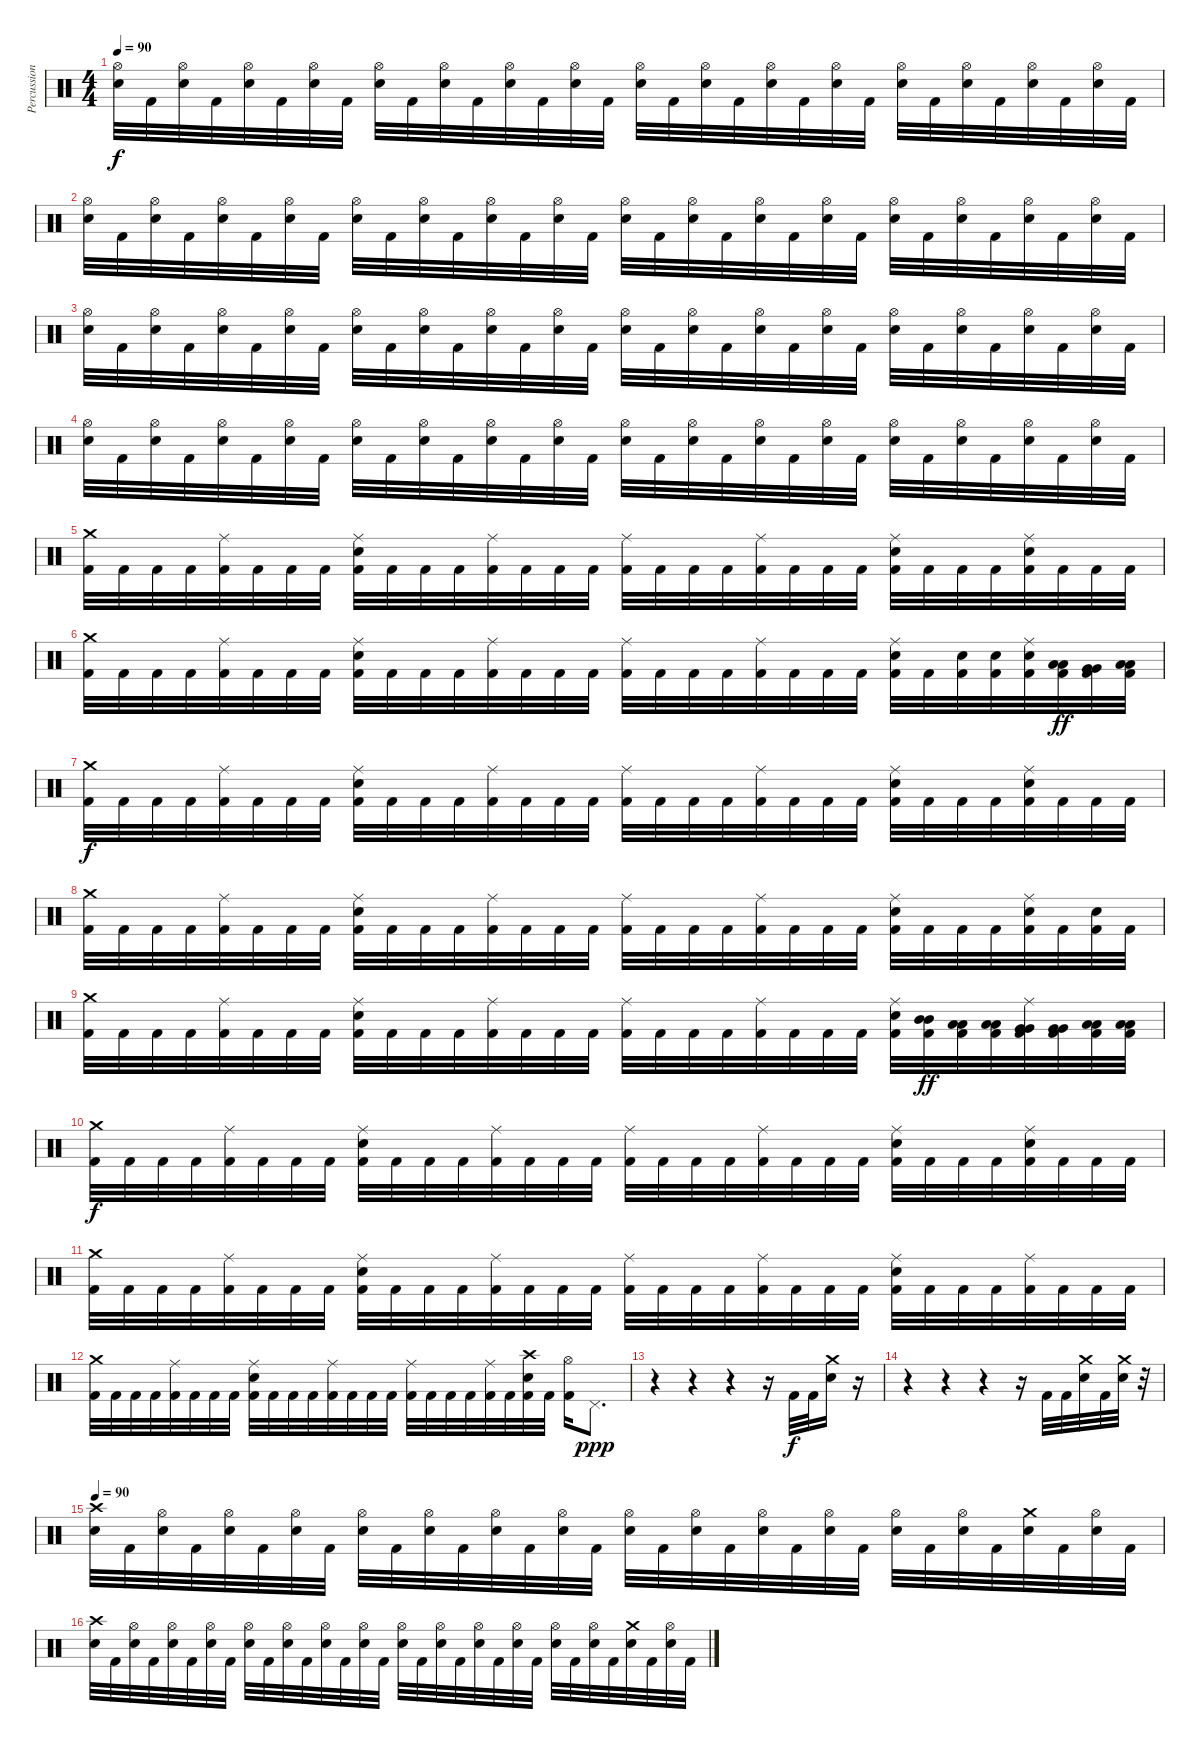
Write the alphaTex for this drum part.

\track ("Percussion" "Percussion") {instrument percussion}
\staff {score}
\articulation defaults
\ts (4 4)
\tempo 90
\clef neutral
\ks c
("Hi-Hat (open)" "Electric Snare (hit)").32{dy f} "Kick (hit) 2".32 ("Hi-Hat (open)" "Electric Snare (hit)").32 "Kick (hit) 2".32 ("Hi-Hat (open)" "Electric Snare (hit)").32 "Kick (hit) 2".32 ("Hi-Hat (open)" "Electric Snare (hit)").32 "Kick (hit) 2".32 ("Hi-Hat (open)" "Electric Snare (hit)").32 "Kick (hit) 2".32 ("Hi-Hat (open)" "Electric Snare (hit)").32 "Kick (hit) 2".32 ("Hi-Hat (open)" "Electric Snare (hit)").32 "Kick (hit) 2".32 ("Hi-Hat (open)" "Electric Snare (hit)").32 "Kick (hit) 2".32 ("Hi-Hat (open)" "Electric Snare (hit)").32 "Kick (hit) 2".32 ("Hi-Hat (open)" "Electric Snare (hit)").32 "Kick (hit) 2".32 ("Hi-Hat (open)" "Electric Snare (hit)").32 "Kick (hit) 2".32 ("Hi-Hat (open)" "Electric Snare (hit)").32 "Kick (hit) 2".32 ("Hi-Hat (open)" "Electric Snare (hit)").32 "Kick (hit) 2".32 ("Hi-Hat (open)" "Electric Snare (hit)").32 "Kick (hit) 2".32 ("Hi-Hat (open)" "Electric Snare (hit)").32 "Kick (hit) 2".32 ("Hi-Hat (open)" "Electric Snare (hit)").32 "Kick (hit) 2".32 |
("Hi-Hat (open)" "Electric Snare (hit)").32 "Kick (hit) 2".32 ("Hi-Hat (open)" "Electric Snare (hit)").32 "Kick (hit) 2".32 ("Hi-Hat (open)" "Electric Snare (hit)").32 "Kick (hit) 2".32 ("Hi-Hat (open)" "Electric Snare (hit)").32 "Kick (hit) 2".32 ("Hi-Hat (open)" "Electric Snare (hit)").32 "Kick (hit) 2".32 ("Hi-Hat (open)" "Electric Snare (hit)").32 "Kick (hit) 2".32 ("Hi-Hat (open)" "Electric Snare (hit)").32 "Kick (hit) 2".32 ("Hi-Hat (open)" "Electric Snare (hit)").32 "Kick (hit) 2".32 ("Hi-Hat (open)" "Electric Snare (hit)").32 "Kick (hit) 2".32 ("Hi-Hat (open)" "Electric Snare (hit)").32 "Kick (hit) 2".32 ("Hi-Hat (open)" "Electric Snare (hit)").32 "Kick (hit) 2".32 ("Hi-Hat (open)" "Electric Snare (hit)").32 "Kick (hit) 2".32 ("Hi-Hat (open)" "Electric Snare (hit)").32 "Kick (hit) 2".32 ("Hi-Hat (open)" "Electric Snare (hit)").32 "Kick (hit) 2".32 ("Hi-Hat (open)" "Electric Snare (hit)").32 "Kick (hit) 2".32 ("Hi-Hat (open)" "Electric Snare (hit)").32 "Kick (hit) 2".32 |
("Hi-Hat (open)" "Electric Snare (hit)").32 "Kick (hit) 2".32 ("Hi-Hat (open)" "Electric Snare (hit)").32 "Kick (hit) 2".32 ("Hi-Hat (open)" "Electric Snare (hit)").32 "Kick (hit) 2".32 ("Hi-Hat (open)" "Electric Snare (hit)").32 "Kick (hit) 2".32 ("Hi-Hat (open)" "Electric Snare (hit)").32 "Kick (hit) 2".32 ("Hi-Hat (open)" "Electric Snare (hit)").32 "Kick (hit) 2".32 ("Hi-Hat (open)" "Electric Snare (hit)").32 "Kick (hit) 2".32 ("Hi-Hat (open)" "Electric Snare (hit)").32 "Kick (hit) 2".32 ("Hi-Hat (open)" "Electric Snare (hit)").32 "Kick (hit) 2".32 ("Hi-Hat (open)" "Electric Snare (hit)").32 "Kick (hit) 2".32 ("Hi-Hat (open)" "Electric Snare (hit)").32 "Kick (hit) 2".32 ("Hi-Hat (open)" "Electric Snare (hit)").32 "Kick (hit) 2".32 ("Hi-Hat (open)" "Electric Snare (hit)").32 "Kick (hit) 2".32 ("Hi-Hat (open)" "Electric Snare (hit)").32 "Kick (hit) 2".32 ("Hi-Hat (open)" "Electric Snare (hit)").32 "Kick (hit) 2".32 ("Hi-Hat (open)" "Electric Snare (hit)").32 "Kick (hit) 2".32 |
("Hi-Hat (open)" "Electric Snare (hit)").32 "Kick (hit) 2".32 ("Hi-Hat (open)" "Electric Snare (hit)").32 "Kick (hit) 2".32 ("Hi-Hat (open)" "Electric Snare (hit)").32 "Kick (hit) 2".32 ("Hi-Hat (open)" "Electric Snare (hit)").32 "Kick (hit) 2".32 ("Hi-Hat (open)" "Electric Snare (hit)").32 "Kick (hit) 2".32 ("Hi-Hat (open)" "Electric Snare (hit)").32 "Kick (hit) 2".32 ("Hi-Hat (open)" "Electric Snare (hit)").32 "Kick (hit) 2".32 ("Hi-Hat (open)" "Electric Snare (hit)").32 "Kick (hit) 2".32 ("Hi-Hat (open)" "Electric Snare (hit)").32 "Kick (hit) 2".32 ("Hi-Hat (open)" "Electric Snare (hit)").32 "Kick (hit) 2".32 ("Hi-Hat (open)" "Electric Snare (hit)").32 "Kick (hit) 2".32 ("Hi-Hat (open)" "Electric Snare (hit)").32 "Kick (hit) 2".32 ("Hi-Hat (open)" "Electric Snare (hit)").32 "Kick (hit) 2".32 ("Hi-Hat (open)" "Electric Snare (hit)").32 "Kick (hit) 2".32 ("Hi-Hat (open)" "Electric Snare (hit)").32 "Kick (hit) 2".32 ("Hi-Hat (open)" "Electric Snare (hit)").32 "Kick (hit) 2".32 |
("Crash medium (hit)" "Kick (hit) 2").32 "Kick (hit) 2".32 "Kick (hit) 2".32 "Kick (hit) 2".32 ("Ride (middle)" "Kick (hit) 2").32 "Kick (hit) 2".32 "Kick (hit) 2".32 "Kick (hit) 2".32 ("Ride (middle)" "Electric Snare (hit)" "Kick (hit) 2").32 "Kick (hit) 2".32 "Kick (hit) 2".32 "Kick (hit) 2".32 ("Ride (middle)" "Kick (hit) 2").32 "Kick (hit) 2".32 "Kick (hit) 2".32 "Kick (hit) 2".32 ("Ride (middle)" "Kick (hit) 2").32 "Kick (hit) 2".32 "Kick (hit) 2".32 "Kick (hit) 2".32 ("Ride (middle)" "Kick (hit) 2").32 "Kick (hit) 2".32 "Kick (hit) 2".32 "Kick (hit) 2".32 ("Ride (middle)" "Electric Snare (hit)" "Kick (hit) 2").32 "Kick (hit) 2".32 "Kick (hit) 2".32 "Kick (hit) 2".32 ("Ride (middle)" "Electric Snare (hit)" "Kick (hit) 2").32 "Kick (hit) 2".32 "Kick (hit) 2".32 "Kick (hit) 2".32 |
("Crash medium (hit)" "Kick (hit) 2").32 "Kick (hit) 2".32 "Kick (hit) 2".32 "Kick (hit) 2".32 ("Ride (middle)" "Kick (hit) 2").32 "Kick (hit) 2".32 "Kick (hit) 2".32 "Kick (hit) 2".32 ("Ride (middle)" "Electric Snare (hit)" "Kick (hit) 2").32 "Kick (hit) 2".32 "Kick (hit) 2".32 "Kick (hit) 2".32 ("Ride (middle)" "Kick (hit) 2").32 "Kick (hit) 2".32 "Kick (hit) 2".32 "Kick (hit) 2".32 ("Ride (middle)" "Kick (hit) 2").32 "Kick (hit) 2".32 "Kick (hit) 2".32 "Kick (hit) 2".32 ("Ride (middle)" "Kick (hit) 2").32 "Kick (hit) 2".32 "Kick (hit) 2".32 "Kick (hit) 2".32 ("Ride (middle)" "Electric Snare (hit)" "Kick (hit) 2").32 "Kick (hit) 2".32 ("Electric Snare (hit)" "Kick (hit) 2").32 ("Electric Snare (hit)" "Kick (hit) 2").32 ("Ride (middle)" "Electric Snare (hit)" "Kick (hit) 2").32 ("Low Tom (hit)" "Low Tom (hit)" "Kick (hit) 2").32{dy ff} ("Very Low Tom (hit)" "Very Low Tom (hit)" "Kick (hit) 2").32 ("Low Floor Tom (hit)" "Low Floor Tom (hit)" "Kick (hit) 2").32 |
("Crash medium (hit)" "Kick (hit) 2").32{dy f} "Kick (hit) 2".32 "Kick (hit) 2".32 "Kick (hit) 2".32 ("Ride (middle)" "Kick (hit) 2").32 "Kick (hit) 2".32 "Kick (hit) 2".32 "Kick (hit) 2".32 ("Ride (middle)" "Electric Snare (hit)" "Kick (hit) 2").32 "Kick (hit) 2".32 "Kick (hit) 2".32 "Kick (hit) 2".32 ("Ride (middle)" "Kick (hit) 2").32 "Kick (hit) 2".32 "Kick (hit) 2".32 "Kick (hit) 2".32 ("Ride (middle)" "Kick (hit) 2").32 "Kick (hit) 2".32 "Kick (hit) 2".32 "Kick (hit) 2".32 ("Ride (middle)" "Kick (hit) 2").32 "Kick (hit) 2".32 "Kick (hit) 2".32 "Kick (hit) 2".32 ("Ride (middle)" "Electric Snare (hit)" "Kick (hit) 2").32 "Kick (hit) 2".32 "Kick (hit) 2".32 "Kick (hit) 2".32 ("Ride (middle)" "Electric Snare (hit)" "Kick (hit) 2").32 "Kick (hit) 2".32 "Kick (hit) 2".32 "Kick (hit) 2".32 |
("Crash medium (hit)" "Kick (hit) 2").32 "Kick (hit) 2".32 "Kick (hit) 2".32 "Kick (hit) 2".32 ("Ride (middle)" "Kick (hit) 2").32 "Kick (hit) 2".32 "Kick (hit) 2".32 "Kick (hit) 2".32 ("Ride (middle)" "Electric Snare (hit)" "Kick (hit) 2").32 "Kick (hit) 2".32 "Kick (hit) 2".32 "Kick (hit) 2".32 ("Ride (middle)" "Kick (hit) 2").32 "Kick (hit) 2".32 "Kick (hit) 2".32 "Kick (hit) 2".32 ("Ride (middle)" "Kick (hit) 2").32 "Kick (hit) 2".32 "Kick (hit) 2".32 "Kick (hit) 2".32 ("Ride (middle)" "Kick (hit) 2").32 "Kick (hit) 2".32 "Kick (hit) 2".32 "Kick (hit) 2".32 ("Ride (middle)" "Electric Snare (hit)" "Kick (hit) 2").32 "Kick (hit) 2".32 "Kick (hit) 2".32 "Kick (hit) 2".32 ("Ride (middle)" "Electric Snare (hit)" "Kick (hit) 2").32 "Kick (hit) 2".32 ("Electric Snare (hit)" "Kick (hit) 2").32 "Kick (hit) 2".32 |
("Crash medium (hit)" "Kick (hit) 2").32 "Kick (hit) 2".32 "Kick (hit) 2".32 "Kick (hit) 2".32 ("Ride (middle)" "Kick (hit) 2").32 "Kick (hit) 2".32 "Kick (hit) 2".32 "Kick (hit) 2".32 ("Ride (middle)" "Electric Snare (hit)" "Kick (hit) 2").32 "Kick (hit) 2".32 "Kick (hit) 2".32 "Kick (hit) 2".32 ("Ride (middle)" "Kick (hit) 2").32 "Kick (hit) 2".32 "Kick (hit) 2".32 "Kick (hit) 2".32 ("Ride (middle)" "Kick (hit) 2").32 "Kick (hit) 2".32 "Kick (hit) 2".32 "Kick (hit) 2".32 ("Ride (middle)" "Kick (hit) 2").32 "Kick (hit) 2".32 "Kick (hit) 2".32 "Kick (hit) 2".32 ("Ride (middle)" "Electric Snare (hit)" "Kick (hit) 2").32 ("Mid Tom (hit)" "Mid Tom (hit)" "Kick (hit) 2").32{dy ff} ("Low Tom (hit)" "Low Tom (hit)" "Kick (hit) 2").32 ("Low Tom (hit)" "Low Tom (hit)" "Kick (hit) 2").32 ("Ride (middle)" "Very Low Tom (hit)" "Very Low Tom (hit)" "Kick (hit) 2").32 ("Very Low Tom (hit)" "Very Low Tom (hit)" "Kick (hit) 2").32 ("Low Floor Tom (hit)" "Low Floor Tom (hit)" "Kick (hit) 2").32 ("Low Floor Tom (hit)" "Low Floor Tom (hit)" "Kick (hit) 2").32 |
("Crash medium (hit)" "Kick (hit) 2").32{dy f} "Kick (hit) 2".32 "Kick (hit) 2".32 "Kick (hit) 2".32 ("Ride (middle)" "Kick (hit) 2").32 "Kick (hit) 2".32 "Kick (hit) 2".32 "Kick (hit) 2".32 ("Ride (middle)" "Electric Snare (hit)" "Kick (hit) 2").32 "Kick (hit) 2".32 "Kick (hit) 2".32 "Kick (hit) 2".32 ("Ride (middle)" "Kick (hit) 2").32 "Kick (hit) 2".32 "Kick (hit) 2".32 "Kick (hit) 2".32 ("Ride (middle)" "Kick (hit) 2").32 "Kick (hit) 2".32 "Kick (hit) 2".32 "Kick (hit) 2".32 ("Ride (middle)" "Kick (hit) 2").32 "Kick (hit) 2".32 "Kick (hit) 2".32 "Kick (hit) 2".32 ("Ride (middle)" "Electric Snare (hit)" "Kick (hit) 2").32 "Kick (hit) 2".32 "Kick (hit) 2".32 "Kick (hit) 2".32 ("Ride (middle)" "Electric Snare (hit)" "Kick (hit) 2").32 "Kick (hit) 2".32 "Kick (hit) 2".32 "Kick (hit) 2".32 |
("Crash medium (hit)" "Kick (hit) 2").32 "Kick (hit) 2".32 "Kick (hit) 2".32 "Kick (hit) 2".32 ("Ride (middle)" "Kick (hit) 2").32 "Kick (hit) 2".32 "Kick (hit) 2".32 "Kick (hit) 2".32 ("Ride (middle)" "Electric Snare (hit)" "Kick (hit) 2").32 "Kick (hit) 2".32 "Kick (hit) 2".32 "Kick (hit) 2".32 ("Ride (middle)" "Kick (hit) 2").32 "Kick (hit) 2".32 "Kick (hit) 2".32 "Kick (hit) 2".32 ("Ride (middle)" "Kick (hit) 2").32 "Kick (hit) 2".32 "Kick (hit) 2".32 "Kick (hit) 2".32 ("Ride (middle)" "Kick (hit) 2").32 "Kick (hit) 2".32 "Kick (hit) 2".32 "Kick (hit) 2".32 ("Ride (middle)" "Electric Snare (hit)" "Kick (hit) 2").32 "Kick (hit) 2".32 "Kick (hit) 2".32 "Kick (hit) 2".32 ("Ride (middle)" "Kick (hit) 2").32 "Kick (hit) 2".32 "Kick (hit) 2".32 "Kick (hit) 2".32 |
("Crash medium (hit)" "Kick (hit) 2").32 "Kick (hit) 2".32 "Kick (hit) 2".32 "Kick (hit) 2".32 ("Ride (middle)" "Kick (hit) 2").32 "Kick (hit) 2".32 "Kick (hit) 2".32 "Kick (hit) 2".32 ("Ride (middle)" "Electric Snare (hit)" "Kick (hit) 2").32 "Kick (hit) 2".32 "Kick (hit) 2".32 "Kick (hit) 2".32 ("Ride (middle)" "Kick (hit) 2").32 "Kick (hit) 2".32 "Kick (hit) 2".32 "Kick (hit) 2".32 ("Ride (middle)" "Kick (hit) 2").32 "Kick (hit) 2".32 "Kick (hit) 2".32 "Kick (hit) 2".32 ("Ride (middle)" "Kick (hit) 2").32 "Kick (hit) 2".32 ("Crash high (hit)" "Electric Snare (hit)" "Kick (hit) 2").32 "Kick (hit) 2".32 ("Hi-Hat (open)" "Kick (hit) 2").16 "Pedal Hi-Hat (hit)".8{d dy ppp} |
r.4 r.4 r.4 r.16 "Kick (hit) 2".32{dy f} "Kick (hit) 2".32 ("Crash medium (hit)" "Electric Snare (hit)").16 r.16 |
r.4 r.4 r.4 r.16 "Kick (hit) 2".32 "Kick (hit) 2".32 ("Crash medium (hit)" "Electric Snare (hit)").32 "Kick (hit) 2".32 ("Crash medium (hit)" "Electric Snare (hit)").32 r.32 |
\tempo 90
("Crash high (hit)" "Electric Snare (hit)").32 "Kick (hit) 2".32 ("Hi-Hat (open)" "Electric Snare (hit)").32 "Kick (hit) 2".32 ("Hi-Hat (open)" "Electric Snare (hit)").32 "Kick (hit) 2".32 ("Hi-Hat (open)" "Electric Snare (hit)").32 "Kick (hit) 2".32 ("Hi-Hat (open)" "Electric Snare (hit)").32 "Kick (hit) 2".32 ("Hi-Hat (open)" "Electric Snare (hit)").32 "Kick (hit) 2".32 ("Hi-Hat (open)" "Electric Snare (hit)").32 "Kick (hit) 2".32 ("Hi-Hat (open)" "Electric Snare (hit)").32 "Kick (hit) 2".32 ("Hi-Hat (open)" "Electric Snare (hit)").32 "Kick (hit) 2".32 ("Hi-Hat (open)" "Electric Snare (hit)").32 "Kick (hit) 2".32 ("Hi-Hat (open)" "Electric Snare (hit)").32 "Kick (hit) 2".32 ("Hi-Hat (open)" "Electric Snare (hit)").32 "Kick (hit) 2".32 ("Hi-Hat (open)" "Electric Snare (hit)").32 "Kick (hit) 2".32 ("Hi-Hat (open)" "Electric Snare (hit)").32 "Kick (hit) 2".32 ("Crash medium (hit)" "Electric Snare (hit)").32 "Kick (hit) 2".32 ("Hi-Hat (open)" "Electric Snare (hit)").32 "Kick (hit) 2".32 |
("Crash high (hit)" "Electric Snare (hit)").32 "Kick (hit) 2".32 ("Hi-Hat (open)" "Electric Snare (hit)").32 "Kick (hit) 2".32 ("Hi-Hat (open)" "Electric Snare (hit)").32 "Kick (hit) 2".32 ("Hi-Hat (open)" "Electric Snare (hit)").32 "Kick (hit) 2".32 ("Hi-Hat (open)" "Electric Snare (hit)").32 "Kick (hit) 2".32 ("Hi-Hat (open)" "Electric Snare (hit)").32 "Kick (hit) 2".32 ("Hi-Hat (open)" "Electric Snare (hit)").32 "Kick (hit) 2".32 ("Hi-Hat (open)" "Electric Snare (hit)").32 "Kick (hit) 2".32 ("Hi-Hat (open)" "Electric Snare (hit)").32 "Kick (hit) 2".32 ("Hi-Hat (open)" "Electric Snare (hit)").32 "Kick (hit) 2".32 ("Hi-Hat (open)" "Electric Snare (hit)").32 "Kick (hit) 2".32 ("Hi-Hat (open)" "Electric Snare (hit)").32 "Kick (hit) 2".32 ("Hi-Hat (open)" "Electric Snare (hit)").32 "Kick (hit) 2".32 ("Hi-Hat (open)" "Electric Snare (hit)").32 "Kick (hit) 2".32 ("Crash medium (hit)" "Electric Snare (hit)").32 "Kick (hit) 2".32 ("Hi-Hat (open)" "Electric Snare (hit)").32 "Kick (hit) 2".32
